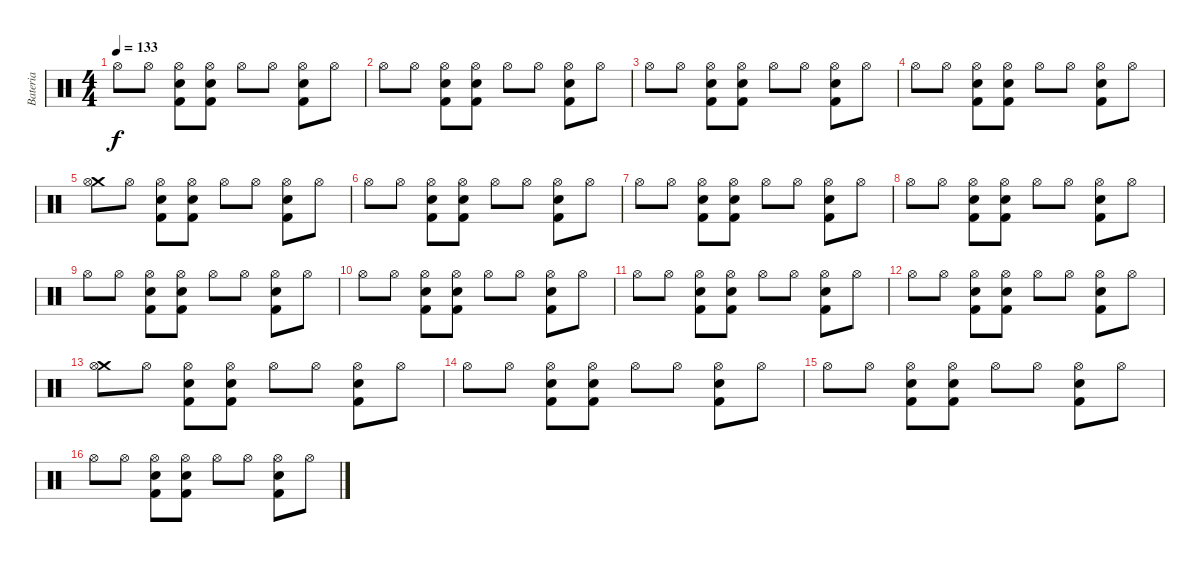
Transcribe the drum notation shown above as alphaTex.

\track ("Bateria" "Bateria") {instrument percussion}
\staff {score}
\articulation defaults
\ts (4 4)
\tempo 133
\clef neutral
\ks c "Hi-Hat (open)".8{dy f} "Hi-Hat (open)".8
("Kick (hit) 2" "Hi-Hat (open)" "Electric Snare (hit)").8 ("Kick (hit) 2" "Hi-Hat (open)" "Electric Snare (hit)").8 "Hi-Hat (open)".8 "Hi-Hat (open)".8 ("Kick (hit) 2" "Hi-Hat (open)" "Electric Snare (hit)").8 "Hi-Hat (open)".8 |
"Hi-Hat (open)".8 "Hi-Hat (open)".8 ("Kick (hit) 2" "Hi-Hat (open)" "Electric Snare (hit)").8 ("Kick (hit) 2" "Hi-Hat (open)" "Electric Snare (hit)").8 "Hi-Hat (open)".8 "Hi-Hat (open)".8 ("Kick (hit) 2" "Hi-Hat (open)" "Electric Snare (hit)").8 "Hi-Hat (open)".8 |
"Hi-Hat (open)".8 "Hi-Hat (open)".8 ("Kick (hit) 2" "Hi-Hat (open)" "Electric Snare (hit)").8 ("Kick (hit) 2" "Hi-Hat (open)" "Electric Snare (hit)").8 "Hi-Hat (open)".8 "Hi-Hat (open)".8 ("Kick (hit) 2" "Hi-Hat (open)" "Electric Snare (hit)").8 "Hi-Hat (open)".8 |
"Hi-Hat (open)".8 "Hi-Hat (open)".8 ("Kick (hit) 2" "Hi-Hat (open)" "Electric Snare (hit)").8 ("Kick (hit) 2" "Hi-Hat (open)" "Electric Snare (hit)").8 "Hi-Hat (open)".8 "Hi-Hat (open)".8 ("Kick (hit) 2" "Hi-Hat (open)" "Electric Snare (hit)").8 "Hi-Hat (open)".8 |
("Crash medium (hit)" "Hi-Hat (open)").8 "Hi-Hat (open)".8 ("Kick (hit) 2" "Hi-Hat (open)" "Electric Snare (hit)").8 ("Kick (hit) 2" "Hi-Hat (open)" "Electric Snare (hit)").8 "Hi-Hat (open)".8 "Hi-Hat (open)".8 ("Kick (hit) 2" "Hi-Hat (open)" "Electric Snare (hit)").8 "Hi-Hat (open)".8 |
"Hi-Hat (open)".8 "Hi-Hat (open)".8 ("Kick (hit) 2" "Hi-Hat (open)" "Electric Snare (hit)").8 ("Kick (hit) 2" "Hi-Hat (open)" "Electric Snare (hit)").8 "Hi-Hat (open)".8 "Hi-Hat (open)".8 ("Kick (hit) 2" "Hi-Hat (open)" "Electric Snare (hit)").8 "Hi-Hat (open)".8 |
"Hi-Hat (open)".8 "Hi-Hat (open)".8 ("Kick (hit) 2" "Hi-Hat (open)" "Electric Snare (hit)").8 ("Kick (hit) 2" "Hi-Hat (open)" "Electric Snare (hit)").8 "Hi-Hat (open)".8 "Hi-Hat (open)".8 ("Kick (hit) 2" "Hi-Hat (open)" "Electric Snare (hit)").8 "Hi-Hat (open)".8 |
"Hi-Hat (open)".8 "Hi-Hat (open)".8 ("Kick (hit) 2" "Hi-Hat (open)" "Electric Snare (hit)").8 ("Kick (hit) 2" "Hi-Hat (open)" "Electric Snare (hit)").8 "Hi-Hat (open)".8 "Hi-Hat (open)".8 ("Kick (hit) 2" "Hi-Hat (open)" "Electric Snare (hit)").8 "Hi-Hat (open)".8 |
"Hi-Hat (open)".8 "Hi-Hat (open)".8 ("Kick (hit) 2" "Hi-Hat (open)" "Electric Snare (hit)").8 ("Kick (hit) 2" "Hi-Hat (open)" "Electric Snare (hit)").8 "Hi-Hat (open)".8 "Hi-Hat (open)".8 ("Kick (hit) 2" "Hi-Hat (open)" "Electric Snare (hit)").8 "Hi-Hat (open)".8 |
"Hi-Hat (open)".8 "Hi-Hat (open)".8 ("Kick (hit) 2" "Hi-Hat (open)" "Electric Snare (hit)").8 ("Kick (hit) 2" "Hi-Hat (open)" "Electric Snare (hit)").8 "Hi-Hat (open)".8 "Hi-Hat (open)".8 ("Kick (hit) 2" "Hi-Hat (open)" "Electric Snare (hit)").8 "Hi-Hat (open)".8 |
"Hi-Hat (open)".8 "Hi-Hat (open)".8 ("Kick (hit) 2" "Hi-Hat (open)" "Electric Snare (hit)").8 ("Kick (hit) 2" "Hi-Hat (open)" "Electric Snare (hit)").8 "Hi-Hat (open)".8 "Hi-Hat (open)".8 ("Kick (hit) 2" "Hi-Hat (open)" "Electric Snare (hit)").8 "Hi-Hat (open)".8 |
"Hi-Hat (open)".8 "Hi-Hat (open)".8 ("Kick (hit) 2" "Hi-Hat (open)" "Electric Snare (hit)").8 ("Kick (hit) 2" "Hi-Hat (open)" "Electric Snare (hit)").8 "Hi-Hat (open)".8 "Hi-Hat (open)".8 ("Kick (hit) 2" "Hi-Hat (open)" "Electric Snare (hit)").8 "Hi-Hat (open)".8 |
("Crash medium (hit)" "Hi-Hat (open)").8 "Hi-Hat (open)".8 ("Kick (hit) 2" "Hi-Hat (open)" "Electric Snare (hit)").8 ("Kick (hit) 2" "Hi-Hat (open)" "Electric Snare (hit)").8 "Hi-Hat (open)".8 "Hi-Hat (open)".8 ("Kick (hit) 2" "Hi-Hat (open)" "Electric Snare (hit)").8 "Hi-Hat (open)".8 |
"Hi-Hat (open)".8 "Hi-Hat (open)".8 ("Kick (hit) 2" "Hi-Hat (open)" "Electric Snare (hit)").8 ("Kick (hit) 2" "Hi-Hat (open)" "Electric Snare (hit)").8 "Hi-Hat (open)".8 "Hi-Hat (open)".8 ("Kick (hit) 2" "Hi-Hat (open)" "Electric Snare (hit)").8 "Hi-Hat (open)".8 |
"Hi-Hat (open)".8 "Hi-Hat (open)".8 ("Kick (hit) 2" "Hi-Hat (open)" "Electric Snare (hit)").8 ("Kick (hit) 2" "Hi-Hat (open)" "Electric Snare (hit)").8 "Hi-Hat (open)".8 "Hi-Hat (open)".8 ("Kick (hit) 2" "Hi-Hat (open)" "Electric Snare (hit)").8 "Hi-Hat (open)".8 |
"Hi-Hat (open)".8 "Hi-Hat (open)".8 ("Kick (hit) 2" "Hi-Hat (open)" "Electric Snare (hit)").8 ("Kick (hit) 2" "Hi-Hat (open)" "Electric Snare (hit)").8 "Hi-Hat (open)".8 "Hi-Hat (open)".8 ("Kick (hit) 2" "Hi-Hat (open)" "Electric Snare (hit)").8 "Hi-Hat (open)".8
